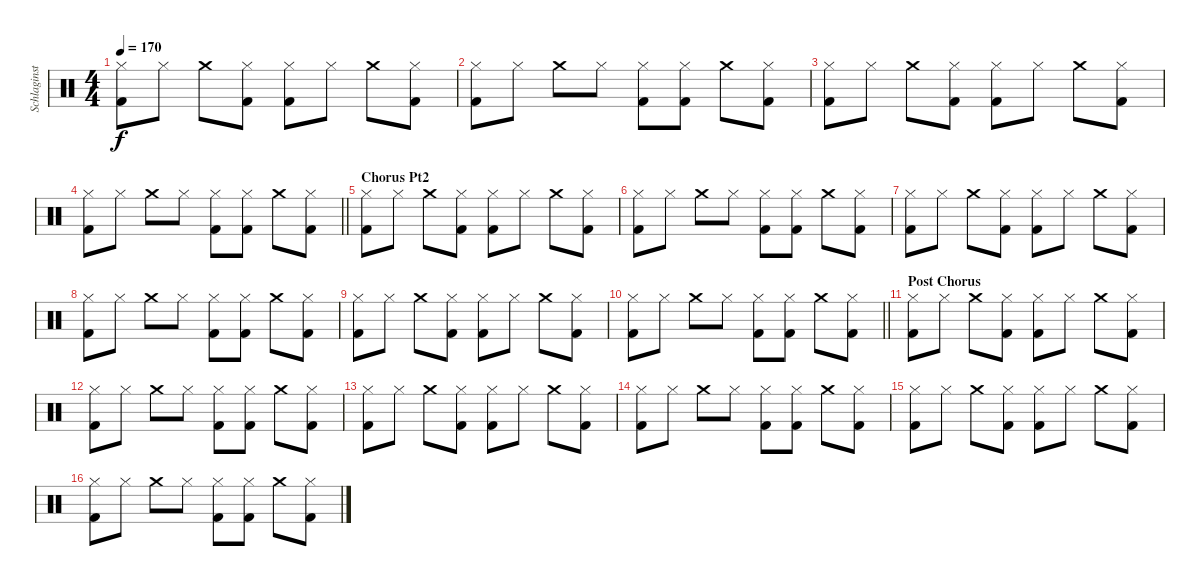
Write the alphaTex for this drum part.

\track ("Schlaginstrumente - Auswahl" "Schlaginst") {instrument percussion}
\staff {score}
\articulation defaults
\ts (4 4)
\tempo 170
\clef neutral
\ks c
("Hi-Hat (closed)" "Kick (hit) 2").8{dy f} "Hi-Hat (closed)".8 "Crash medium (hit)".8 ("Hi-Hat (closed)" "Kick (hit) 2").8 ("Hi-Hat (closed)" "Kick (hit) 2").8 "Hi-Hat (closed)".8 "Crash medium (hit)".8 ("Hi-Hat (closed)" "Kick (hit) 2").8 |
("Hi-Hat (closed)" "Kick (hit) 2").8 "Hi-Hat (closed)".8 "Crash medium (hit)".8 "Hi-Hat (closed)".8 ("Hi-Hat (closed)" "Kick (hit) 2").8 ("Hi-Hat (closed)" "Kick (hit) 2").8 "Crash medium (hit)".8 ("Hi-Hat (closed)" "Kick (hit) 2").8 |
("Hi-Hat (closed)" "Kick (hit) 2").8 "Hi-Hat (closed)".8 "Crash medium (hit)".8 ("Hi-Hat (closed)" "Kick (hit) 2").8 ("Hi-Hat (closed)" "Kick (hit) 2").8 "Hi-Hat (closed)".8 "Crash medium (hit)".8 ("Hi-Hat (closed)" "Kick (hit) 2").8 |
\barLineRight lightlight
("Hi-Hat (closed)" "Kick (hit) 2").8 "Hi-Hat (closed)".8 "Crash medium (hit)".8 "Hi-Hat (closed)".8 ("Hi-Hat (closed)" "Kick (hit) 2").8 ("Hi-Hat (closed)" "Kick (hit) 2").8 "Crash medium (hit)".8 ("Hi-Hat (closed)" "Kick (hit) 2").8 |
\section ("" "Chorus Pt2")
("Hi-Hat (closed)" "Kick (hit) 2").8 "Hi-Hat (closed)".8 "Crash medium (hit)".8 ("Hi-Hat (closed)" "Kick (hit) 2").8 ("Hi-Hat (closed)" "Kick (hit) 2").8 "Hi-Hat (closed)".8 "Crash medium (hit)".8 ("Hi-Hat (closed)" "Kick (hit) 2").8 |
("Hi-Hat (closed)" "Kick (hit) 2").8 "Hi-Hat (closed)".8 "Crash medium (hit)".8 "Hi-Hat (closed)".8 ("Hi-Hat (closed)" "Kick (hit) 2").8 ("Hi-Hat (closed)" "Kick (hit) 2").8 "Crash medium (hit)".8 ("Hi-Hat (closed)" "Kick (hit) 2").8 |
("Hi-Hat (closed)" "Kick (hit) 2").8 "Hi-Hat (closed)".8 "Crash medium (hit)".8 ("Hi-Hat (closed)" "Kick (hit) 2").8 ("Hi-Hat (closed)" "Kick (hit) 2").8 "Hi-Hat (closed)".8 "Crash medium (hit)".8 ("Hi-Hat (closed)" "Kick (hit) 2").8 |
("Hi-Hat (closed)" "Kick (hit) 2").8 "Hi-Hat (closed)".8 "Crash medium (hit)".8 "Hi-Hat (closed)".8 ("Hi-Hat (closed)" "Kick (hit) 2").8 ("Hi-Hat (closed)" "Kick (hit) 2").8 "Crash medium (hit)".8 ("Hi-Hat (closed)" "Kick (hit) 2").8 |
("Hi-Hat (closed)" "Kick (hit) 2").8 "Hi-Hat (closed)".8 "Crash medium (hit)".8 ("Hi-Hat (closed)" "Kick (hit) 2").8 ("Hi-Hat (closed)" "Kick (hit) 2").8 "Hi-Hat (closed)".8 "Crash medium (hit)".8 ("Hi-Hat (closed)" "Kick (hit) 2").8 |
\barLineRight lightlight
("Hi-Hat (closed)" "Kick (hit) 2").8 "Hi-Hat (closed)".8 "Crash medium (hit)".8 "Hi-Hat (closed)".8 ("Hi-Hat (closed)" "Kick (hit) 2").8 ("Hi-Hat (closed)" "Kick (hit) 2").8 "Crash medium (hit)".8 ("Hi-Hat (closed)" "Kick (hit) 2").8 |
\section ("" "Post Chorus")
("Hi-Hat (closed)" "Kick (hit) 2").8 "Hi-Hat (closed)".8 "Crash medium (hit)".8 ("Hi-Hat (closed)" "Kick (hit) 2").8 ("Hi-Hat (closed)" "Kick (hit) 2").8 "Hi-Hat (closed)".8 "Crash medium (hit)".8 ("Hi-Hat (closed)" "Kick (hit) 2").8 |
("Hi-Hat (closed)" "Kick (hit) 2").8 "Hi-Hat (closed)".8 "Crash medium (hit)".8 "Hi-Hat (closed)".8 ("Hi-Hat (closed)" "Kick (hit) 2").8 ("Hi-Hat (closed)" "Kick (hit) 2").8 "Crash medium (hit)".8 ("Hi-Hat (closed)" "Kick (hit) 2").8 |
("Hi-Hat (closed)" "Kick (hit) 2").8 "Hi-Hat (closed)".8 "Crash medium (hit)".8 ("Hi-Hat (closed)" "Kick (hit) 2").8 ("Hi-Hat (closed)" "Kick (hit) 2").8 "Hi-Hat (closed)".8 "Crash medium (hit)".8 ("Hi-Hat (closed)" "Kick (hit) 2").8 |
("Hi-Hat (closed)" "Kick (hit) 2").8 "Hi-Hat (closed)".8 "Crash medium (hit)".8 "Hi-Hat (closed)".8 ("Hi-Hat (closed)" "Kick (hit) 2").8 ("Hi-Hat (closed)" "Kick (hit) 2").8 "Crash medium (hit)".8 ("Hi-Hat (closed)" "Kick (hit) 2").8 |
("Hi-Hat (closed)" "Kick (hit) 2").8 "Hi-Hat (closed)".8 "Crash medium (hit)".8 ("Hi-Hat (closed)" "Kick (hit) 2").8 ("Hi-Hat (closed)" "Kick (hit) 2").8 "Hi-Hat (closed)".8 "Crash medium (hit)".8 ("Hi-Hat (closed)" "Kick (hit) 2").8 |
("Hi-Hat (closed)" "Kick (hit) 2").8 "Hi-Hat (closed)".8 "Crash medium (hit)".8 "Hi-Hat (closed)".8 ("Hi-Hat (closed)" "Kick (hit) 2").8 ("Hi-Hat (closed)" "Kick (hit) 2").8 "Crash medium (hit)".8 ("Hi-Hat (closed)" "Kick (hit) 2").8
